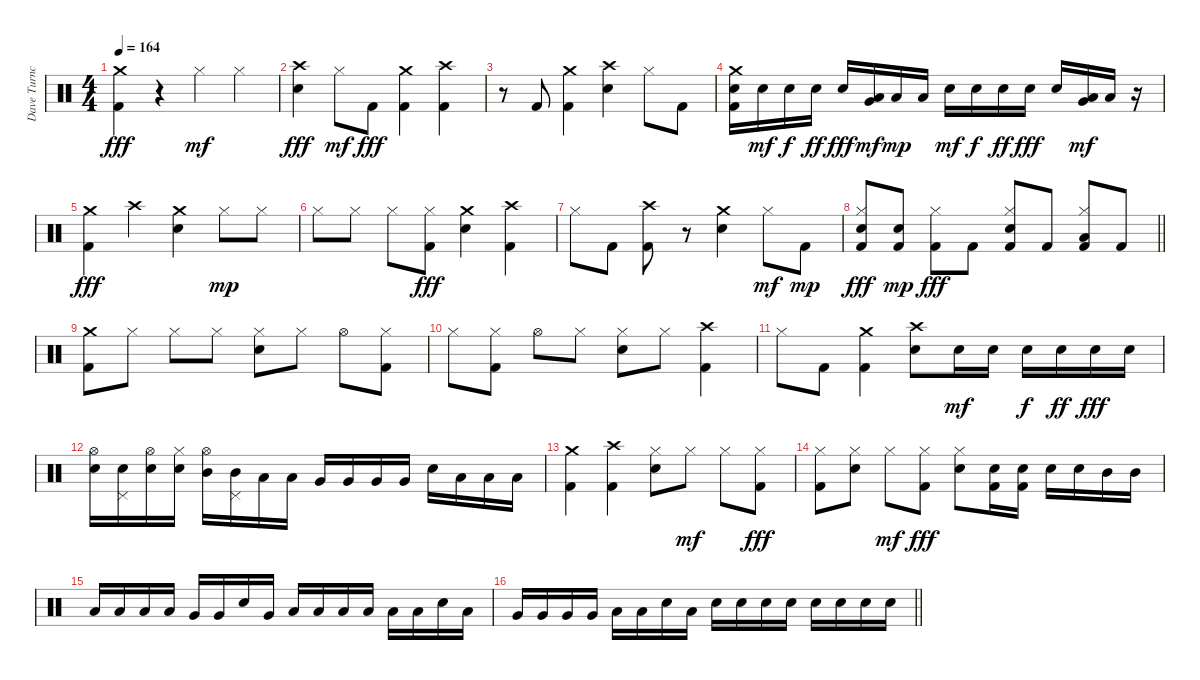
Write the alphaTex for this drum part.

\track ("Dave Turncrantz" "Dave Turnc") {instrument percussion}
\staff {score}
\articulation defaults
\ts (4 4)
\section ("" "")
\tempo 164
\clef neutral
\ks c
("Crash medium (hit)" "Kick (hit) 2").4{dy fff} r.4 "Hi-Hat (closed)".4{dy mf} "Hi-Hat (closed)".4 |
("Crash high (hit)" "Electric Snare (hit)").4{dy fff} "Hi-Hat (closed)".8{dy mf} "Kick (hit) 2".8{dy fff} ("Crash medium (hit)" "Kick (hit) 2").4 ("Crash high (hit)" "Kick (hit) 2").4 |
r.8 "Kick (hit) 2".8 ("Crash medium (hit)" "Kick (hit) 2").4 ("Crash high (hit)" "Electric Snare (hit)").4 "Hi-Hat (closed)".8 "Kick (hit) 2".8 |
("Crash medium (hit)" "Electric Snare (hit)" "Kick (hit) 2").16 "Electric Snare (hit)".16{dy mf} "Electric Snare (hit)".16{dy f} "Electric Snare (hit)".16{dy ff} "Electric Snare (hit)".16{dy fff} ("Low Tom (hit)" "Very Low Tom (hit)").16{dy mf} "Low Tom (hit)".16{dy mp} "Low Tom (hit)".16 "Electric Snare (hit)".16{dy mf} "Electric Snare (hit)".16{dy f} "Electric Snare (hit)".16{dy ff} "Electric Snare (hit)".16{dy fff} "Electric Snare (hit)".16 ("Low Tom (hit)" "Very Low Tom (hit)").16{dy mf} "Low Tom (hit)".16 r.16 |
("Crash medium (hit)" "Kick (hit) 2").4{dy fff} "Crash high (hit)".4 ("Crash medium (hit)" "Electric Snare (hit)").4 "Hi-Hat (closed)".8{dy mp} "Hi-Hat (closed)".8 |
"Hi-Hat (closed)".8 "Hi-Hat (closed)".8 "Hi-Hat (closed)".8 ("Hi-Hat (closed)" "Kick (hit) 2").8{dy fff} ("Crash medium (hit)" "Electric Snare (hit)").4 ("Crash high (hit)" "Kick (hit) 2").4 |
"Hi-Hat (closed)".8 "Kick (hit) 2".8 ("Crash high (hit)" "Kick (hit) 2").8 r.8 ("Crash medium (hit)" "Electric Snare (hit)").4 "Hi-Hat (closed)".8{dy mf} "Kick (hit) 2".8{dy mp} |
\barLineRight lightlight
("Hi-Hat (closed)" "Electric Snare (hit)" "Kick (hit) 2").8{dy fff} ("Electric Snare (hit)" "Kick (hit) 2").8{dy mp} ("Hi-Hat (closed)" "Kick (hit) 2").8{dy fff} "Kick (hit) 2".8 ("Hi-Hat (closed)" "Electric Snare (hit)" "Kick (hit) 2").8 "Kick (hit) 2".8 ("Hi-Hat (closed)" "Low Tom (hit)" "Kick (hit) 2").8 "Kick (hit) 2".8 |
\section ("" "")
("Crash medium (hit)" "Kick (hit) 2").8 "Hi-Hat (closed)".8 "Hi-Hat (closed)".8 "Hi-Hat (closed)".8 ("Hi-Hat (closed)" "Electric Snare (hit)").8 "Hi-Hat (closed)".8 "Hi-Hat (open)".8 ("Hi-Hat (closed)" "Kick (hit) 2").8 |
"Hi-Hat (closed)".8 ("Hi-Hat (closed)" "Kick (hit) 2").8 "Hi-Hat (open)".8 "Hi-Hat (closed)".8 ("Hi-Hat (closed)" "Electric Snare (hit)").8 "Hi-Hat (closed)".8 ("Crash high (hit)" "Kick (hit) 2").4 |
"Hi-Hat (closed)".8 "Kick (hit) 2".8 ("Crash medium (hit)" "Kick (hit) 2").4 ("Crash high (hit)" "Electric Snare (hit)").8 "Electric Snare (hit)".16{dy mf} "Electric Snare (hit)".16 "Electric Snare (hit)".16{dy f} "Electric Snare (hit)".16{dy ff} "Electric Snare (hit)".16{dy fff} "Electric Snare (hit)".16 |
("Hi-Hat (open)" "Electric Snare (hit)").16 ("Pedal Hi-Hat (hit)" "Electric Snare (hit)").16 ("Hi-Hat (open)" "Electric Snare (hit)").16 ("Hi-Hat (closed)" "Electric Snare (hit)").16 ("Hi-Hat (open)" "Mid Tom (hit)").16 ("Pedal Hi-Hat (hit)" "Mid Tom (hit)").16 "Low Tom (hit)".16 "Low Tom (hit)".16 "Very Low Tom (hit)".16 "Very Low Tom (hit)".16 "Very Low Tom (hit)".16 "Very Low Tom (hit)".16 "Electric Snare (hit)".16 "Low Floor Tom (hit)".16 "Low Floor Tom (hit)".16 "Low Floor Tom (hit)".16 |
("Crash medium (hit)" "Kick (hit) 2").4 ("Crash high (hit)" "Kick (hit) 2").4 ("Hi-Hat (closed)" "Electric Snare (hit)").8 "Hi-Hat (closed)".8{dy mf} "Hi-Hat (closed)".8 ("Hi-Hat (closed)" "Kick (hit) 2").8{dy fff} |
("Hi-Hat (closed)" "Kick (hit) 2").8 ("Hi-Hat (closed)" "Electric Snare (hit)").8 "Hi-Hat (closed)".8{dy mf} ("Hi-Hat (closed)" "Kick (hit) 2").8{dy fff} ("Hi-Hat (closed)" "Electric Snare (hit)").8 ("Electric Snare (hit)" "Kick (hit) 2").16 ("Electric Snare (hit)" "Kick (hit) 2").16 "Electric Snare (hit)".16 "Electric Snare (hit)".16 "Mid Tom (hit)".16 "Mid Tom (hit)".16 |
"Low Tom (hit)".16 "Low Tom (hit)".16 "Low Tom (hit)".16 "Low Tom (hit)".16 "Very Low Tom (hit)".16 "Very Low Tom (hit)".16 "Electric Snare (hit)".16 "Very Low Tom (hit)".16 "Low Floor Tom (hit)".16 "Low Floor Tom (hit)".16 "Low Floor Tom (hit)".16 "Low Floor Tom (hit)".16 "Low Tom (hit)".16 "Low Tom (hit)".16 "Electric Snare (hit)".16 "Low Tom (hit)".16 |
\barLineRight lightlight "Very Low Tom (hit)".16 "Very Low Tom (hit)".16 "Very Low Tom (hit)".16 "Very Low Tom (hit)".16 "Low Floor Tom (hit)".16 "Low Floor Tom (hit)".16 "Electric Snare (hit)".16 "Low Floor Tom (hit)".16 "Electric Snare (hit)".16 "Electric Snare (hit)".16 "Electric Snare (hit)".16 "Electric Snare (hit)".16 "Electric Snare (hit)".16 "Electric Snare (hit)".16 "Electric Snare (hit)".16 "Electric Snare (hit)".16
